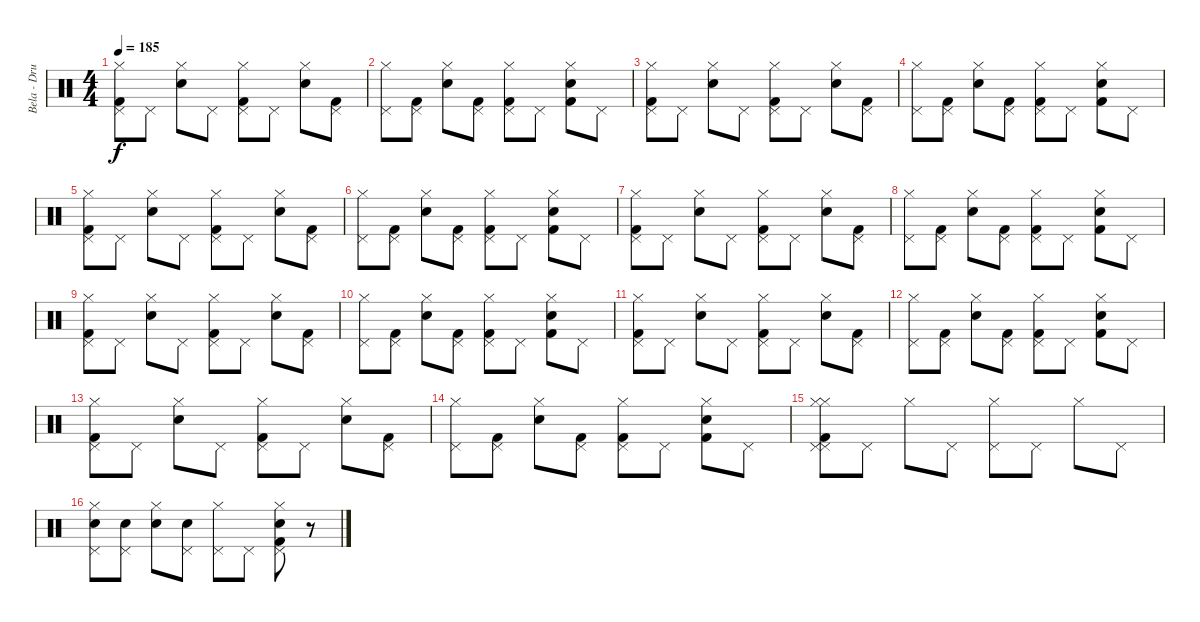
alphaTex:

\track ("Bela - Drums" "Bela - Dru") {instrument percussion}
\staff {score}
\articulation defaults
\ts (4 4)
\tempo 185
\clef neutral
\ks c
("Hi-Hat (closed)" "Pedal Hi-Hat (hit)" "Kick (hit) 2").8{dy f} "Pedal Hi-Hat (hit)".8 ("Hi-Hat (closed)" "Electric Snare (hit)").8 "Pedal Hi-Hat (hit)".8 ("Hi-Hat (closed)" "Kick (hit) 2" "Pedal Hi-Hat (hit)").8 "Pedal Hi-Hat (hit)".8 ("Hi-Hat (closed)" "Electric Snare (hit)").8 ("Pedal Hi-Hat (hit)" "Kick (hit) 2").8 |
("Pedal Hi-Hat (hit)" "Hi-Hat (closed)").8 ("Pedal Hi-Hat (hit)" "Kick (hit) 2").8 ("Hi-Hat (closed)" "Electric Snare (hit)").8 ("Pedal Hi-Hat (hit)" "Kick (hit) 2").8 ("Pedal Hi-Hat (hit)" "Hi-Hat (closed)" "Kick (hit) 2").8 "Pedal Hi-Hat (hit)".8 ("Hi-Hat (closed)" "Electric Snare (hit)" "Kick (hit) 2").8 "Pedal Hi-Hat (hit)".8 |
("Hi-Hat (closed)" "Pedal Hi-Hat (hit)" "Kick (hit) 2").8 "Pedal Hi-Hat (hit)".8 ("Hi-Hat (closed)" "Electric Snare (hit)").8 "Pedal Hi-Hat (hit)".8 ("Hi-Hat (closed)" "Kick (hit) 2" "Pedal Hi-Hat (hit)").8 "Pedal Hi-Hat (hit)".8 ("Hi-Hat (closed)" "Electric Snare (hit)").8 ("Pedal Hi-Hat (hit)" "Kick (hit) 2").8 |
("Pedal Hi-Hat (hit)" "Hi-Hat (closed)").8 ("Pedal Hi-Hat (hit)" "Kick (hit) 2").8 ("Hi-Hat (closed)" "Electric Snare (hit)").8 ("Pedal Hi-Hat (hit)" "Kick (hit) 2").8 ("Pedal Hi-Hat (hit)" "Hi-Hat (closed)" "Kick (hit) 2").8 "Pedal Hi-Hat (hit)".8 ("Hi-Hat (closed)" "Electric Snare (hit)" "Kick (hit) 2").8 "Pedal Hi-Hat (hit)".8 |
("Hi-Hat (closed)" "Pedal Hi-Hat (hit)" "Kick (hit) 2").8 "Pedal Hi-Hat (hit)".8 ("Hi-Hat (closed)" "Electric Snare (hit)").8 "Pedal Hi-Hat (hit)".8 ("Hi-Hat (closed)" "Kick (hit) 2" "Pedal Hi-Hat (hit)").8 "Pedal Hi-Hat (hit)".8 ("Hi-Hat (closed)" "Electric Snare (hit)").8 ("Pedal Hi-Hat (hit)" "Kick (hit) 2").8 |
("Pedal Hi-Hat (hit)" "Hi-Hat (closed)").8 ("Pedal Hi-Hat (hit)" "Kick (hit) 2").8 ("Hi-Hat (closed)" "Electric Snare (hit)").8 ("Pedal Hi-Hat (hit)" "Kick (hit) 2").8 ("Pedal Hi-Hat (hit)" "Hi-Hat (closed)" "Kick (hit) 2").8 "Pedal Hi-Hat (hit)".8 ("Hi-Hat (closed)" "Electric Snare (hit)" "Kick (hit) 2").8 "Pedal Hi-Hat (hit)".8 |
("Hi-Hat (closed)" "Pedal Hi-Hat (hit)" "Kick (hit) 2").8 "Pedal Hi-Hat (hit)".8 ("Hi-Hat (closed)" "Electric Snare (hit)").8 "Pedal Hi-Hat (hit)".8 ("Hi-Hat (closed)" "Kick (hit) 2" "Pedal Hi-Hat (hit)").8 "Pedal Hi-Hat (hit)".8 ("Hi-Hat (closed)" "Electric Snare (hit)").8 ("Pedal Hi-Hat (hit)" "Kick (hit) 2").8 |
("Pedal Hi-Hat (hit)" "Hi-Hat (closed)").8 ("Pedal Hi-Hat (hit)" "Kick (hit) 2").8 ("Hi-Hat (closed)" "Electric Snare (hit)").8 ("Pedal Hi-Hat (hit)" "Kick (hit) 2").8 ("Pedal Hi-Hat (hit)" "Hi-Hat (closed)" "Kick (hit) 2").8 "Pedal Hi-Hat (hit)".8 ("Hi-Hat (closed)" "Electric Snare (hit)" "Kick (hit) 2").8 "Pedal Hi-Hat (hit)".8 |
("Hi-Hat (closed)" "Pedal Hi-Hat (hit)" "Kick (hit) 2").8 "Pedal Hi-Hat (hit)".8 ("Hi-Hat (closed)" "Electric Snare (hit)").8 "Pedal Hi-Hat (hit)".8 ("Hi-Hat (closed)" "Kick (hit) 2" "Pedal Hi-Hat (hit)").8 "Pedal Hi-Hat (hit)".8 ("Hi-Hat (closed)" "Electric Snare (hit)").8 ("Pedal Hi-Hat (hit)" "Kick (hit) 2").8 |
("Pedal Hi-Hat (hit)" "Hi-Hat (closed)").8 ("Pedal Hi-Hat (hit)" "Kick (hit) 2").8 ("Hi-Hat (closed)" "Electric Snare (hit)").8 ("Pedal Hi-Hat (hit)" "Kick (hit) 2").8 ("Pedal Hi-Hat (hit)" "Hi-Hat (closed)" "Kick (hit) 2").8 "Pedal Hi-Hat (hit)".8 ("Hi-Hat (closed)" "Electric Snare (hit)" "Kick (hit) 2").8 "Pedal Hi-Hat (hit)".8 |
("Hi-Hat (closed)" "Pedal Hi-Hat (hit)" "Kick (hit) 2").8 "Pedal Hi-Hat (hit)".8 ("Hi-Hat (closed)" "Electric Snare (hit)").8 "Pedal Hi-Hat (hit)".8 ("Hi-Hat (closed)" "Kick (hit) 2" "Pedal Hi-Hat (hit)").8 "Pedal Hi-Hat (hit)".8 ("Hi-Hat (closed)" "Electric Snare (hit)").8 ("Pedal Hi-Hat (hit)" "Kick (hit) 2").8 |
("Pedal Hi-Hat (hit)" "Hi-Hat (closed)").8 ("Pedal Hi-Hat (hit)" "Kick (hit) 2").8 ("Hi-Hat (closed)" "Electric Snare (hit)").8 ("Pedal Hi-Hat (hit)" "Kick (hit) 2").8 ("Pedal Hi-Hat (hit)" "Hi-Hat (closed)" "Kick (hit) 2").8 "Pedal Hi-Hat (hit)".8 ("Hi-Hat (closed)" "Electric Snare (hit)" "Kick (hit) 2").8 "Pedal Hi-Hat (hit)".8 |
("Hi-Hat (closed)" "Pedal Hi-Hat (hit)" "Kick (hit) 2").8 "Pedal Hi-Hat (hit)".8 ("Hi-Hat (closed)" "Electric Snare (hit)").8 "Pedal Hi-Hat (hit)".8 ("Hi-Hat (closed)" "Kick (hit) 2" "Pedal Hi-Hat (hit)").8 "Pedal Hi-Hat (hit)".8 ("Hi-Hat (closed)" "Electric Snare (hit)").8 ("Pedal Hi-Hat (hit)" "Kick (hit) 2").8 |
("Pedal Hi-Hat (hit)" "Hi-Hat (closed)").8 ("Pedal Hi-Hat (hit)" "Kick (hit) 2").8 ("Hi-Hat (closed)" "Electric Snare (hit)").8 ("Pedal Hi-Hat (hit)" "Kick (hit) 2").8 ("Pedal Hi-Hat (hit)" "Hi-Hat (closed)" "Kick (hit) 2").8 "Pedal Hi-Hat (hit)".8 ("Hi-Hat (closed)" "Electric Snare (hit)" "Kick (hit) 2").8 "Pedal Hi-Hat (hit)".8 |
("Pedal Hi-Hat (hit)" "Hi-Hat (closed)" "Kick (hit) 2" "Hi-Hat (closed)" "Pedal Hi-Hat (hit)").8 "Pedal Hi-Hat (hit)".8 "Hi-Hat (closed)".8 "Pedal Hi-Hat (hit)".8 ("Hi-Hat (closed)" "Pedal Hi-Hat (hit)").8 "Pedal Hi-Hat (hit)".8 "Hi-Hat (closed)".8 "Pedal Hi-Hat (hit)".8 |
("Pedal Hi-Hat (hit)" "Hi-Hat (closed)" "Snare (hit) 2").8 ("Snare (hit) 2" "Pedal Hi-Hat (hit)").8 ("Snare (hit) 2" "Hi-Hat (closed)").8 ("Pedal Hi-Hat (hit)" "Snare (hit) 2").8 ("Hi-Hat (closed)" "Pedal Hi-Hat (hit)").8 "Pedal Hi-Hat (hit)".8 ("Kick (hit) 2" "Pedal Hi-Hat (hit)" "Snare (hit) 2" "Hi-Hat (closed)").8 r.8
